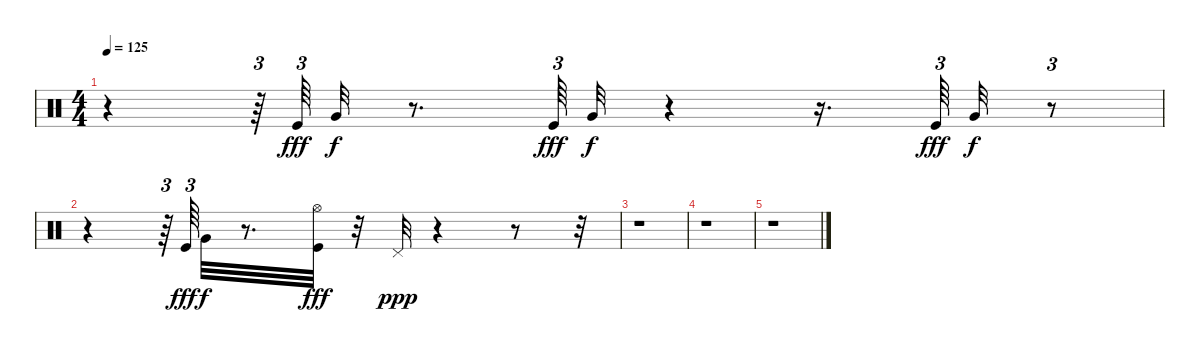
\track "" {instrument percussion}
\staff {score}
\articulation defaults
\ts (4 4)
\tempo 125
\clef neutral
\ks c
r.4{dy f} r.64{tu (3 2)} "Kick (hit)".64{tu (3 2) dy fff} "Very Low Tom (hit)".32{dy f} r.8{d} "Kick (hit)".64{tu (3 2) dy fff} "Very Low Tom (hit)".32{dy f} r.4 r.16{d} "Kick (hit)".64{tu (3 2) dy fff} "Very Low Tom (hit)".32{dy f} r.8{tu (3 2)} |
r.4 r.64{tu (3 2)} "Kick (hit)".64{tu (3 2) dy fff} "Very Low Tom (hit)".32{dy f} r.8{d} ("Kick (hit)" "Hi-Hat (open)").32{dy fff} r.32 "Pedal Hi-Hat (hit)".32{dy ppp} r.4 r.8 r.32 |
r.1 |
r.1 |
r.1
